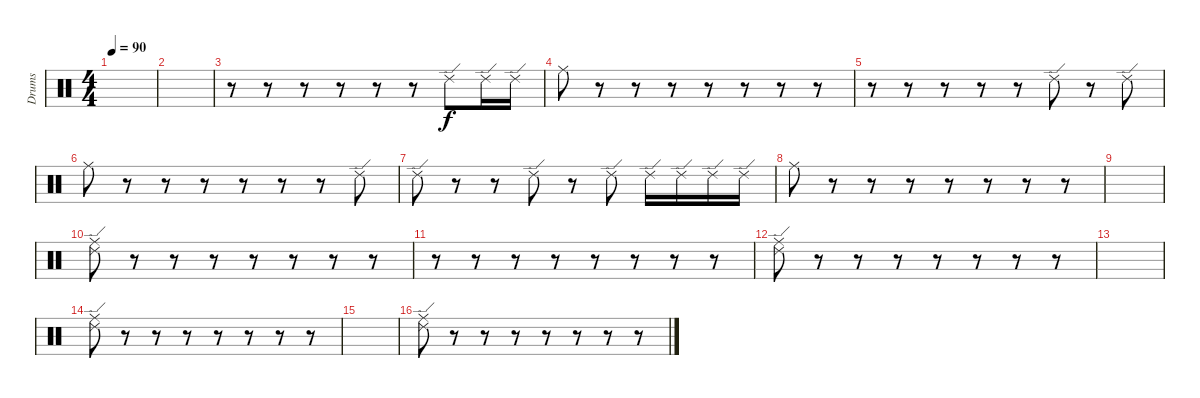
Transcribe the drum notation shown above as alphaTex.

\track ("Drums" "Drums") {instrument percussion}
\staff {score}
\articulation defaults
\ts (4 4)
\tempo 90
\clef neutral
\ks c
|
|
r.8 r.8 r.8 r.8 r.8 r.8 "Ride (edge) 2".8 "Ride (edge) 2".16 "Ride (edge) 2".16 |
"Ride (middle)".8 r.8 r.8 r.8 r.8 r.8 r.8 r.8 |
r.8 r.8 r.8 r.8 r.8 "Ride (edge) 2".8 r.8 "Ride (edge) 2".8 |
"Ride (middle)".8 r.8 r.8 r.8 r.8 r.8 r.8 "Ride (edge) 2".8 |
"Ride (edge) 2".8 r.8 r.8 "Ride (edge) 2".8 r.8 "Ride (edge) 2".8 "Ride (edge) 2".16 "Ride (edge) 2".16 "Ride (edge) 2".16 "Ride (edge) 2".16 |
"Ride (middle)".8 r.8 r.8 r.8 r.8 r.8 r.8 r.8 |
|
("Ride (edge) 2" "Ride (middle)").8 r.8 r.8 r.8 r.8 r.8 r.8 r.8 |
r.8 r.8 r.8 r.8 r.8 r.8 r.8 r.8 |
("Ride (edge) 2" "Ride (middle)").8 r.8 r.8 r.8 r.8 r.8 r.8 r.8 |
|
("Ride (edge) 2" "Ride (middle)").8 r.8 r.8 r.8 r.8 r.8 r.8 r.8 |
|
("Ride (edge) 2" "Ride (middle)").8 r.8 r.8 r.8 r.8 r.8 r.8 r.8
